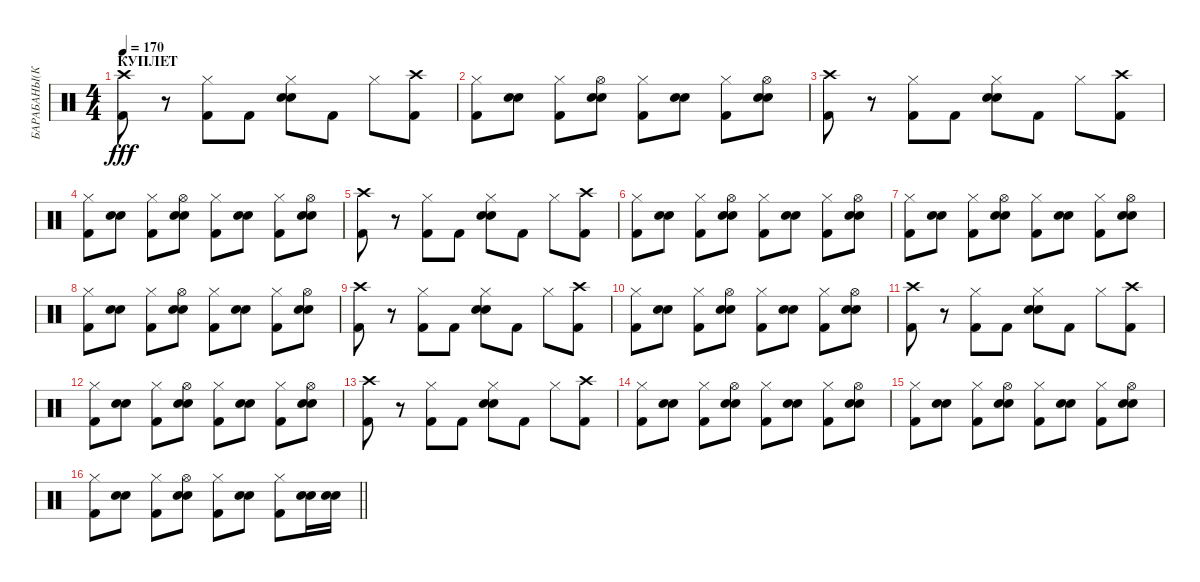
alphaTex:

\track ("БАРАБАНЫ(КАРДАН)" "БАРАБАНЫ(К") {instrument percussion}
\staff {score}
\articulation defaults
\ts (4 4)
\section ("" "КУПЛЕТ")
\tempo 170
\clef neutral
\ks c
("Kick (hit) 2" "Crash high (hit)").8{dy fff} r.8 ("Kick (hit) 2" "Hi-Hat (closed)").8 "Kick (hit) 2".8 ("Snare (hit) 2" "Electric Snare (hit)" "Hi-Hat (closed)").8 "Kick (hit) 2".8 "Hi-Hat (closed)".8 ("Kick (hit) 2" "Crash high (hit)").8 |
("Kick (hit) 2" "Hi-Hat (closed)").8 ("Snare (hit) 2" "Electric Snare (hit)").8 ("Kick (hit) 2" "Hi-Hat (closed)").8 ("Electric Snare (hit)" "Snare (hit) 2" "Hi-Hat (open)").8 ("Kick (hit) 2" "Hi-Hat (closed)").8 ("Snare (hit) 2" "Electric Snare (hit)").8 ("Kick (hit) 2" "Hi-Hat (closed)").8 ("Electric Snare (hit)" "Snare (hit) 2" "Hi-Hat (open)").8 |
("Kick (hit) 2" "Crash high (hit)").8 r.8 ("Kick (hit) 2" "Hi-Hat (closed)").8 "Kick (hit) 2".8 ("Snare (hit) 2" "Electric Snare (hit)" "Hi-Hat (closed)").8 "Kick (hit) 2".8 "Hi-Hat (closed)".8 ("Kick (hit) 2" "Crash high (hit)").8 |
("Kick (hit) 2" "Hi-Hat (closed)").8 ("Snare (hit) 2" "Electric Snare (hit)").8 ("Kick (hit) 2" "Hi-Hat (closed)").8 ("Electric Snare (hit)" "Snare (hit) 2" "Hi-Hat (open)").8 ("Kick (hit) 2" "Hi-Hat (closed)").8 ("Snare (hit) 2" "Electric Snare (hit)").8 ("Kick (hit) 2" "Hi-Hat (closed)").8 ("Electric Snare (hit)" "Snare (hit) 2" "Hi-Hat (open)").8 |
("Kick (hit) 2" "Crash high (hit)").8 r.8 ("Kick (hit) 2" "Hi-Hat (closed)").8 "Kick (hit) 2".8 ("Snare (hit) 2" "Electric Snare (hit)" "Hi-Hat (closed)").8 "Kick (hit) 2".8 "Hi-Hat (closed)".8 ("Kick (hit) 2" "Crash high (hit)").8 |
("Kick (hit) 2" "Hi-Hat (closed)").8 ("Snare (hit) 2" "Electric Snare (hit)").8 ("Kick (hit) 2" "Hi-Hat (closed)").8 ("Electric Snare (hit)" "Snare (hit) 2" "Hi-Hat (open)").8 ("Kick (hit) 2" "Hi-Hat (closed)").8 ("Snare (hit) 2" "Electric Snare (hit)").8 ("Kick (hit) 2" "Hi-Hat (closed)").8 ("Electric Snare (hit)" "Snare (hit) 2" "Hi-Hat (open)").8 |
("Kick (hit) 2" "Hi-Hat (closed)").8 ("Snare (hit) 2" "Electric Snare (hit)").8 ("Kick (hit) 2" "Hi-Hat (closed)").8 ("Electric Snare (hit)" "Snare (hit) 2" "Hi-Hat (open)").8 ("Kick (hit) 2" "Hi-Hat (closed)").8 ("Snare (hit) 2" "Electric Snare (hit)").8 ("Kick (hit) 2" "Hi-Hat (closed)").8 ("Electric Snare (hit)" "Snare (hit) 2" "Hi-Hat (open)").8 |
("Kick (hit) 2" "Hi-Hat (closed)").8 ("Snare (hit) 2" "Electric Snare (hit)").8 ("Kick (hit) 2" "Hi-Hat (closed)").8 ("Electric Snare (hit)" "Snare (hit) 2" "Hi-Hat (open)").8 ("Kick (hit) 2" "Hi-Hat (closed)").8 ("Snare (hit) 2" "Electric Snare (hit)").8 ("Kick (hit) 2" "Hi-Hat (closed)").8 ("Electric Snare (hit)" "Snare (hit) 2" "Hi-Hat (open)").8 |
("Kick (hit) 2" "Crash high (hit)").8 r.8 ("Kick (hit) 2" "Hi-Hat (closed)").8 "Kick (hit) 2".8 ("Snare (hit) 2" "Electric Snare (hit)" "Hi-Hat (closed)").8 "Kick (hit) 2".8 "Hi-Hat (closed)".8 ("Kick (hit) 2" "Crash high (hit)").8 |
("Kick (hit) 2" "Hi-Hat (closed)").8 ("Snare (hit) 2" "Electric Snare (hit)").8 ("Kick (hit) 2" "Hi-Hat (closed)").8 ("Electric Snare (hit)" "Snare (hit) 2" "Hi-Hat (open)").8 ("Kick (hit) 2" "Hi-Hat (closed)").8 ("Snare (hit) 2" "Electric Snare (hit)").8 ("Kick (hit) 2" "Hi-Hat (closed)").8 ("Electric Snare (hit)" "Snare (hit) 2" "Hi-Hat (open)").8 |
("Kick (hit) 2" "Crash high (hit)").8 r.8 ("Kick (hit) 2" "Hi-Hat (closed)").8 "Kick (hit) 2".8 ("Snare (hit) 2" "Electric Snare (hit)" "Hi-Hat (closed)").8 "Kick (hit) 2".8 "Hi-Hat (closed)".8 ("Kick (hit) 2" "Crash high (hit)").8 |
("Kick (hit) 2" "Hi-Hat (closed)").8 ("Snare (hit) 2" "Electric Snare (hit)").8 ("Kick (hit) 2" "Hi-Hat (closed)").8 ("Electric Snare (hit)" "Snare (hit) 2" "Hi-Hat (open)").8 ("Kick (hit) 2" "Hi-Hat (closed)").8 ("Snare (hit) 2" "Electric Snare (hit)").8 ("Kick (hit) 2" "Hi-Hat (closed)").8 ("Electric Snare (hit)" "Snare (hit) 2" "Hi-Hat (open)").8 |
("Kick (hit) 2" "Crash high (hit)").8 r.8 ("Kick (hit) 2" "Hi-Hat (closed)").8 "Kick (hit) 2".8 ("Snare (hit) 2" "Electric Snare (hit)" "Hi-Hat (closed)").8 "Kick (hit) 2".8 "Hi-Hat (closed)".8 ("Kick (hit) 2" "Crash high (hit)").8 |
("Kick (hit) 2" "Hi-Hat (closed)").8 ("Snare (hit) 2" "Electric Snare (hit)").8 ("Kick (hit) 2" "Hi-Hat (closed)").8 ("Electric Snare (hit)" "Snare (hit) 2" "Hi-Hat (open)").8 ("Kick (hit) 2" "Hi-Hat (closed)").8 ("Snare (hit) 2" "Electric Snare (hit)").8 ("Kick (hit) 2" "Hi-Hat (closed)").8 ("Electric Snare (hit)" "Snare (hit) 2" "Hi-Hat (open)").8 |
("Kick (hit) 2" "Hi-Hat (closed)").8 ("Snare (hit) 2" "Electric Snare (hit)").8 ("Kick (hit) 2" "Hi-Hat (closed)").8 ("Electric Snare (hit)" "Snare (hit) 2" "Hi-Hat (open)").8 ("Kick (hit) 2" "Hi-Hat (closed)").8 ("Snare (hit) 2" "Electric Snare (hit)").8 ("Kick (hit) 2" "Hi-Hat (closed)").8 ("Electric Snare (hit)" "Snare (hit) 2" "Hi-Hat (open)").8 |
\barLineRight lightlight
("Kick (hit) 2" "Hi-Hat (closed)").8 ("Snare (hit) 2" "Electric Snare (hit)").8 ("Kick (hit) 2" "Hi-Hat (closed)").8 ("Electric Snare (hit)" "Snare (hit) 2" "Hi-Hat (open)").8 ("Kick (hit) 2" "Hi-Hat (closed)").8 ("Snare (hit) 2" "Electric Snare (hit)").8 ("Kick (hit) 2" "Hi-Hat (closed)").8 ("Electric Snare (hit)" "Snare (hit) 2").16 ("Electric Snare (hit)" "Snare (hit) 2").16
